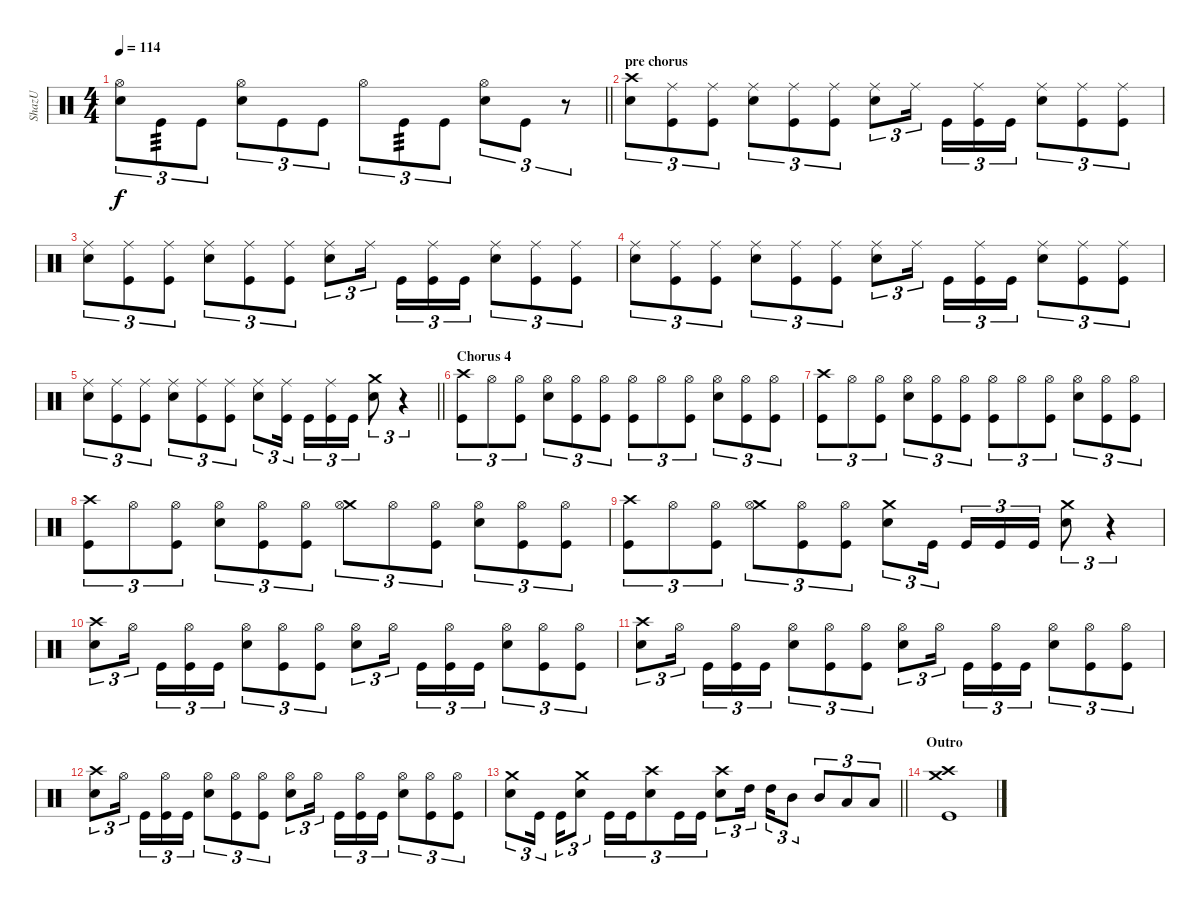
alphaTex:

\track ("ShazU" "ShazU") {instrument percussion}
\staff {score}
\articulation defaults
\ts (4 4)
\tempo 114
\clef neutral
\barLineRight lightlight
\ks c
("Snare (hit) 2" "Hi-Hat (open)").8{tu (3 2) dy f} "Kick (hit)".8{tu (3 2) tp 3} "Kick (hit)".8{tu (3 2)} ("Snare (hit) 2" "Hi-Hat (open)").8{tu (3 2)} "Kick (hit)".8{tu (3 2)} "Kick (hit)".8{tu (3 2)} "Hi-Hat (open)".8{tu (3 2)} "Kick (hit)".8{tu (3 2) tp 3} "Kick (hit)".8{tu (3 2)} ("Snare (hit) 2" "Hi-Hat (open)").8{tu (3 2)} "Kick (hit)".8{tu (3 2)} r.8{tu (3 2)} |
\section ("" "pre chorus")
("Snare (hit) 2" "Crash high (hit)").8{tu (3 2)} ("Kick (hit)" "Ride (middle)").8{tu (3 2)} ("Kick (hit)" "Ride (middle)").8{tu (3 2)} ("Snare (hit) 2" "Ride (middle)").8{tu (3 2)} ("Kick (hit)" "Ride (middle)").8{tu (3 2)} ("Kick (hit)" "Ride (middle)").8{tu (3 2)} ("Snare (hit) 2" "Ride (middle)").8{tu (3 2)} "Ride (middle)".16{tu (3 2) beam splitsecondary} "Kick (hit)".16{tu (3 2)} ("Kick (hit)" "Ride (middle)").16{tu (3 2)} "Kick (hit)".16{tu (3 2)} ("Snare (hit) 2" "Ride (middle)").8{tu (3 2)} ("Kick (hit)" "Ride (middle)").8{tu (3 2)} ("Kick (hit)" "Ride (middle)").8{tu (3 2)} |
("Snare (hit) 2" "Ride (middle)").8{tu (3 2)} ("Kick (hit)" "Ride (middle)").8{tu (3 2)} ("Kick (hit)" "Ride (middle)").8{tu (3 2)} ("Snare (hit) 2" "Ride (middle)").8{tu (3 2)} ("Kick (hit)" "Ride (middle)").8{tu (3 2)} ("Kick (hit)" "Ride (middle)").8{tu (3 2)} ("Snare (hit) 2" "Ride (middle)").8{tu (3 2)} "Ride (middle)".16{tu (3 2) beam splitsecondary} "Kick (hit)".16{tu (3 2)} ("Kick (hit)" "Ride (middle)").16{tu (3 2)} "Kick (hit)".16{tu (3 2)} ("Snare (hit) 2" "Ride (middle)").8{tu (3 2)} ("Kick (hit)" "Ride (middle)").8{tu (3 2)} ("Kick (hit)" "Ride (middle)").8{tu (3 2)} |
("Snare (hit) 2" "Ride (middle)").8{tu (3 2)} ("Kick (hit)" "Ride (middle)").8{tu (3 2)} ("Kick (hit)" "Ride (middle)").8{tu (3 2)} ("Snare (hit) 2" "Ride (middle)").8{tu (3 2)} ("Kick (hit)" "Ride (middle)").8{tu (3 2)} ("Kick (hit)" "Ride (middle)").8{tu (3 2)} ("Snare (hit) 2" "Ride (middle)").8{tu (3 2)} "Ride (middle)".16{tu (3 2) beam splitsecondary} "Kick (hit)".16{tu (3 2)} ("Kick (hit)" "Ride (middle)").16{tu (3 2)} "Kick (hit)".16{tu (3 2)} ("Snare (hit) 2" "Ride (middle)").8{tu (3 2)} ("Kick (hit)" "Ride (middle)").8{tu (3 2)} ("Kick (hit)" "Ride (middle)").8{tu (3 2)} |
\barLineRight lightlight
("Snare (hit) 2" "Ride (middle)").8{tu (3 2)} ("Kick (hit)" "Ride (middle)").8{tu (3 2)} ("Kick (hit)" "Ride (middle)").8{tu (3 2)} ("Snare (hit) 2" "Ride (middle)").8{tu (3 2)} ("Kick (hit)" "Ride (middle)").8{tu (3 2)} ("Kick (hit)" "Ride (middle)").8{tu (3 2)} ("Snare (hit) 2" "Ride (middle)").8{tu (3 2)} ("Kick (hit)" "Ride (middle)").16{tu (3 2) beam splitsecondary} "Kick (hit)".16{tu (3 2)} ("Kick (hit)" "Ride (middle)").16{tu (3 2)} "Kick (hit)".16{tu (3 2)} ("Snare (hit) 2" "Crash medium (hit)").8{tu (3 2)} r.4{tu (3 2)} |
\section ("" "Chorus 4")
("Kick (hit)" "Crash high (hit)").8{tu (3 2)} "Hi-Hat (open)".8{tu (3 2)} ("Kick (hit)" "Hi-Hat (open)").8{tu (3 2)} ("Snare (hit) 2" "Hi-Hat (open)").8{tu (3 2)} ("Kick (hit)" "Hi-Hat (open)").8{tu (3 2)} ("Kick (hit)" "Hi-Hat (open)").8{tu (3 2)} ("Kick (hit)" "Hi-Hat (open)").8{tu (3 2)} "Hi-Hat (open)".8{tu (3 2)} ("Kick (hit)" "Hi-Hat (open)").8{tu (3 2)} ("Snare (hit) 2" "Hi-Hat (open)").8{tu (3 2)} ("Kick (hit)" "Hi-Hat (open)").8{tu (3 2)} ("Kick (hit)" "Hi-Hat (open)").8{tu (3 2)} |
("Kick (hit)" "Crash high (hit)").8{tu (3 2)} "Hi-Hat (open)".8{tu (3 2)} ("Kick (hit)" "Hi-Hat (open)").8{tu (3 2)} ("Snare (hit) 2" "Hi-Hat (open)").8{tu (3 2)} ("Kick (hit)" "Hi-Hat (open)").8{tu (3 2)} ("Kick (hit)" "Hi-Hat (open)").8{tu (3 2)} ("Kick (hit)" "Hi-Hat (open)").8{tu (3 2)} "Hi-Hat (open)".8{tu (3 2)} ("Kick (hit)" "Hi-Hat (open)").8{tu (3 2)} ("Snare (hit) 2" "Hi-Hat (open)").8{tu (3 2)} ("Kick (hit)" "Hi-Hat (open)").8{tu (3 2)} ("Kick (hit)" "Hi-Hat (open)").8{tu (3 2)} |
("Kick (hit)" "Crash high (hit)").8{tu (3 2)} "Hi-Hat (open)".8{tu (3 2)} ("Kick (hit)" "Hi-Hat (open)").8{tu (3 2)} ("Snare (hit) 2" "Hi-Hat (open)").8{tu (3 2)} ("Kick (hit)" "Hi-Hat (open)").8{tu (3 2)} ("Kick (hit)" "Hi-Hat (open)").8{tu (3 2)} ("Crash medium (hit)" "Hi-Hat (open)").8{tu (3 2)} "Hi-Hat (open)".8{tu (3 2)} ("Kick (hit)" "Hi-Hat (open)").8{tu (3 2)} ("Snare (hit) 2" "Hi-Hat (open)").8{tu (3 2)} ("Kick (hit)" "Hi-Hat (open)").8{tu (3 2)} ("Kick (hit)" "Hi-Hat (open)").8{tu (3 2)} |
("Kick (hit)" "Crash high (hit)").8{tu (3 2)} "Hi-Hat (open)".8{tu (3 2)} ("Kick (hit)" "Hi-Hat (open)").8{tu (3 2)} ("Crash medium (hit)" "Hi-Hat (open)").8{tu (3 2)} ("Kick (hit)" "Hi-Hat (open)").8{tu (3 2)} ("Kick (hit)" "Hi-Hat (open)").8{tu (3 2)} ("Snare (hit) 2" "Crash medium (hit)").8{tu (3 2)} "Kick (hit)".16{tu (3 2) beam splitsecondary} "Kick (hit)".16{tu (3 2)} "Kick (hit)".16{tu (3 2)} "Kick (hit)".16{tu (3 2)} ("Snare (hit) 2" "Crash medium (hit)").8{tu (3 2)} r.4{tu (3 2)} |
("Snare (hit) 2" "Crash high (hit)").8{tu (3 2)} "Hi-Hat (open)".16{tu (3 2) beam splitsecondary} "Kick (hit)".16{tu (3 2)} ("Kick (hit)" "Hi-Hat (open)").16{tu (3 2)} "Kick (hit)".16{tu (3 2)} ("Snare (hit) 2" "Hi-Hat (open)").8{tu (3 2)} ("Kick (hit)" "Hi-Hat (open)").8{tu (3 2)} ("Kick (hit)" "Hi-Hat (open)").8{tu (3 2)} ("Snare (hit) 2" "Hi-Hat (open)").8{tu (3 2)} "Hi-Hat (open)".16{tu (3 2) beam splitsecondary} "Kick (hit)".16{tu (3 2)} ("Kick (hit)" "Hi-Hat (open)").16{tu (3 2)} "Kick (hit)".16{tu (3 2)} ("Snare (hit) 2" "Hi-Hat (open)").8{tu (3 2)} ("Kick (hit)" "Hi-Hat (open)").8{tu (3 2)} ("Kick (hit)" "Hi-Hat (open)").8{tu (3 2)} |
("Snare (hit) 2" "Crash high (hit)").8{tu (3 2)} "Hi-Hat (open)".16{tu (3 2) beam splitsecondary} "Kick (hit)".16{tu (3 2)} ("Kick (hit)" "Hi-Hat (open)").16{tu (3 2)} "Kick (hit)".16{tu (3 2)} ("Snare (hit) 2" "Hi-Hat (open)").8{tu (3 2)} ("Kick (hit)" "Hi-Hat (open)").8{tu (3 2)} ("Kick (hit)" "Hi-Hat (open)").8{tu (3 2)} ("Snare (hit) 2" "Hi-Hat (open)").8{tu (3 2)} "Hi-Hat (open)".16{tu (3 2) beam splitsecondary} "Kick (hit)".16{tu (3 2)} ("Kick (hit)" "Hi-Hat (open)").16{tu (3 2)} "Kick (hit)".16{tu (3 2)} ("Snare (hit) 2" "Hi-Hat (open)").8{tu (3 2)} ("Kick (hit)" "Hi-Hat (open)").8{tu (3 2)} ("Kick (hit)" "Hi-Hat (open)").8{tu (3 2)} |
("Snare (hit) 2" "Crash high (hit)").8{tu (3 2)} "Hi-Hat (open)".16{tu (3 2) beam splitsecondary} "Kick (hit)".16{tu (3 2)} ("Kick (hit)" "Hi-Hat (open)").16{tu (3 2)} "Kick (hit)".16{tu (3 2)} ("Snare (hit) 2" "Hi-Hat (open)").8{tu (3 2)} ("Kick (hit)" "Hi-Hat (open)").8{tu (3 2)} ("Kick (hit)" "Hi-Hat (open)").8{tu (3 2)} ("Snare (hit) 2" "Hi-Hat (open)").8{tu (3 2)} "Hi-Hat (open)".16{tu (3 2) beam splitsecondary} "Kick (hit)".16{tu (3 2)} ("Kick (hit)" "Hi-Hat (open)").16{tu (3 2)} "Kick (hit)".16{tu (3 2)} ("Snare (hit) 2" "Hi-Hat (open)").8{tu (3 2)} ("Kick (hit)" "Hi-Hat (open)").8{tu (3 2)} ("Kick (hit)" "Hi-Hat (open)").8{tu (3 2)} |
\barLineRight lightlight
("Snare (hit) 2" "Crash medium (hit)").8{tu (3 2)} "Kick (hit)".16{tu (3 2) beam splitsecondary} "Kick (hit)".16{tu (3 2)} ("Snare (hit) 2" "Crash medium (hit)").8{tu (3 2)} "Kick (hit)".16{tu (3 2)} "Kick (hit)".16{tu (3 2)} ("Snare (hit) 2" "Crash high (hit)").8{tu (3 2)} "Kick (hit)".16{tu (3 2)} "Kick (hit)".16{tu (3 2)} ("Snare (hit) 2" "Crash high (hit)").8{tu (3 2)} "High Tom (hit)".16{tu (3 2) beam splitsecondary} "High Tom (hit)".16{tu (3 2)} "Mid Tom (hit)".8{tu (3 2)} "Mid Tom (hit)".8{tu (3 2)} "Low Tom (hit)".8{tu (3 2)} "Low Tom (hit)".8{tu (3 2)} |
\section ("" "Outro")
("Kick (hit)" "Crash high (hit)" "Crash medium (hit)").1
